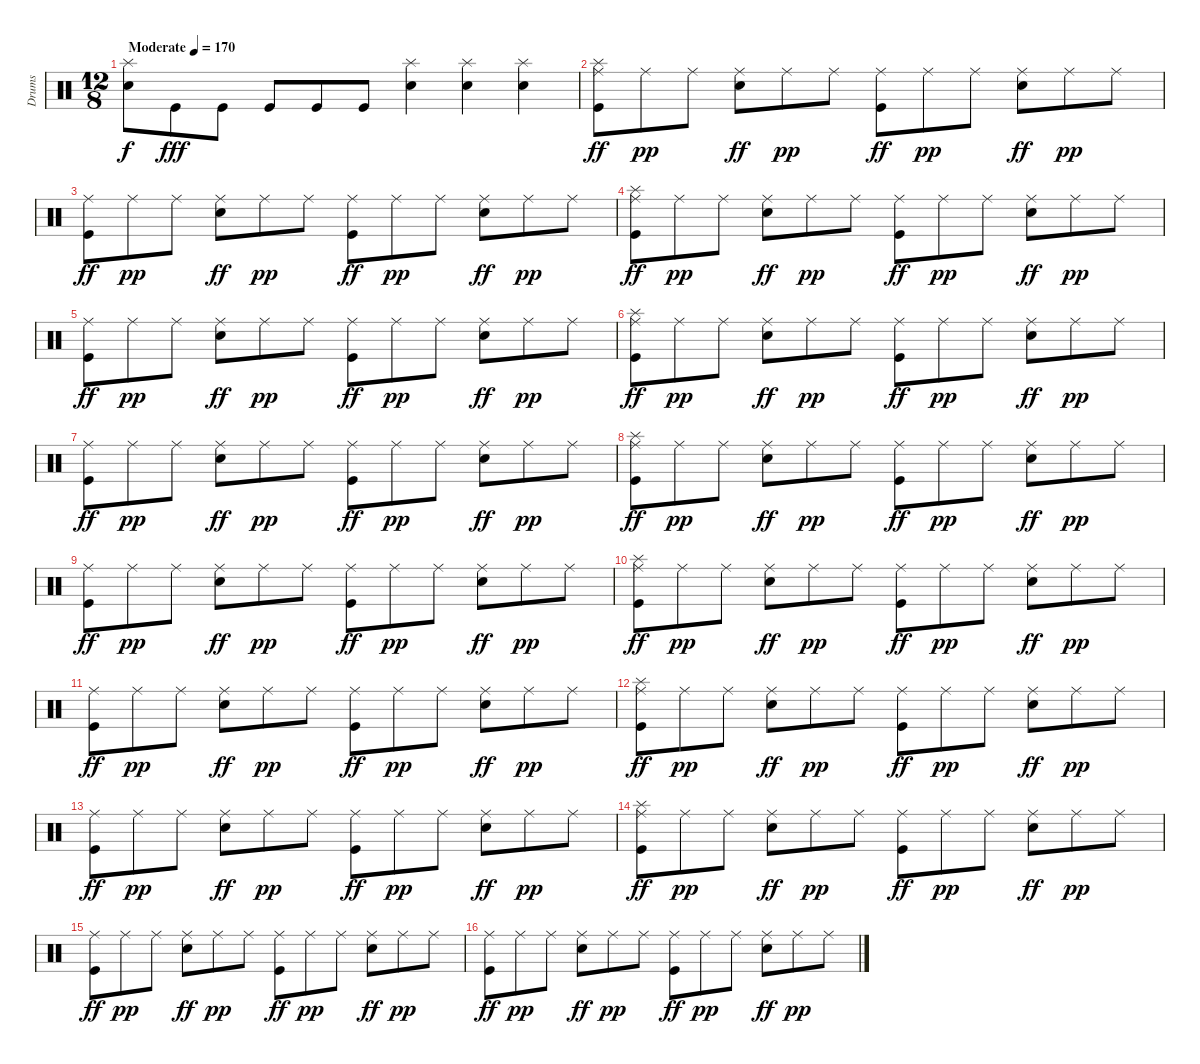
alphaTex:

\track ("Drums" "Drums") {instrument percussion}
\staff {score}
\articulation defaults
\ts (12 8)
\tempo (170 "Moderate")
\clef neutral
\ks c
("Splash (hit)" "Snare (hit) 2").8{dy f} "Kick (hit)".8{dy fff} "Kick (hit)".8 "Kick (hit)".8 "Kick (hit)".8 "Kick (hit)".8 ("Splash (hit)" "Snare (hit) 2").4 ("Splash (hit)" "Snare (hit) 2").4 ("Splash (hit)" "Snare (hit) 2").4 |
("Splash (hit)" "Ride (middle)" "Kick (hit)").8{dy ff} "Ride (middle)".8{dy pp} "Ride (middle)".8 ("Ride (middle)" "Snare (hit) 2").8{dy ff} "Ride (middle)".8{dy pp} "Ride (middle)".8 ("Ride (middle)" "Kick (hit)").8{dy ff} "Ride (middle)".8{dy pp} "Ride (middle)".8 ("Ride (middle)" "Snare (hit) 2").8{dy ff} "Ride (middle)".8{dy pp} "Ride (middle)".8 |
("Ride (middle)" "Kick (hit)").8{dy ff} "Ride (middle)".8{dy pp} "Ride (middle)".8 ("Ride (middle)" "Snare (hit) 2").8{dy ff} "Ride (middle)".8{dy pp} "Ride (middle)".8 ("Ride (middle)" "Kick (hit)").8{dy ff} "Ride (middle)".8{dy pp} "Ride (middle)".8 ("Ride (middle)" "Snare (hit) 2").8{dy ff} "Ride (middle)".8{dy pp} "Ride (middle)".8 |
("Splash (hit)" "Ride (middle)" "Kick (hit)").8{dy ff} "Ride (middle)".8{dy pp} "Ride (middle)".8 ("Ride (middle)" "Snare (hit) 2").8{dy ff} "Ride (middle)".8{dy pp} "Ride (middle)".8 ("Ride (middle)" "Kick (hit)").8{dy ff} "Ride (middle)".8{dy pp} "Ride (middle)".8 ("Ride (middle)" "Snare (hit) 2").8{dy ff} "Ride (middle)".8{dy pp} "Ride (middle)".8 |
("Ride (middle)" "Kick (hit)").8{dy ff} "Ride (middle)".8{dy pp} "Ride (middle)".8 ("Ride (middle)" "Snare (hit) 2").8{dy ff} "Ride (middle)".8{dy pp} "Ride (middle)".8 ("Ride (middle)" "Kick (hit)").8{dy ff} "Ride (middle)".8{dy pp} "Ride (middle)".8 ("Ride (middle)" "Snare (hit) 2").8{dy ff} "Ride (middle)".8{dy pp} "Ride (middle)".8 |
("Splash (hit)" "Ride (middle)" "Kick (hit)").8{dy ff} "Ride (middle)".8{dy pp} "Ride (middle)".8 ("Ride (middle)" "Snare (hit) 2").8{dy ff} "Ride (middle)".8{dy pp} "Ride (middle)".8 ("Ride (middle)" "Kick (hit)").8{dy ff} "Ride (middle)".8{dy pp} "Ride (middle)".8 ("Ride (middle)" "Snare (hit) 2").8{dy ff} "Ride (middle)".8{dy pp} "Ride (middle)".8 |
("Ride (middle)" "Kick (hit)").8{dy ff} "Ride (middle)".8{dy pp} "Ride (middle)".8 ("Ride (middle)" "Snare (hit) 2").8{dy ff} "Ride (middle)".8{dy pp} "Ride (middle)".8 ("Ride (middle)" "Kick (hit)").8{dy ff} "Ride (middle)".8{dy pp} "Ride (middle)".8 ("Ride (middle)" "Snare (hit) 2").8{dy ff} "Ride (middle)".8{dy pp} "Ride (middle)".8 |
("Splash (hit)" "Ride (middle)" "Kick (hit)").8{dy ff} "Ride (middle)".8{dy pp} "Ride (middle)".8 ("Ride (middle)" "Snare (hit) 2").8{dy ff} "Ride (middle)".8{dy pp} "Ride (middle)".8 ("Ride (middle)" "Kick (hit)").8{dy ff} "Ride (middle)".8{dy pp} "Ride (middle)".8 ("Ride (middle)" "Snare (hit) 2").8{dy ff} "Ride (middle)".8{dy pp} "Ride (middle)".8 |
("Ride (middle)" "Kick (hit)").8{dy ff} "Ride (middle)".8{dy pp} "Ride (middle)".8 ("Ride (middle)" "Snare (hit) 2").8{dy ff} "Ride (middle)".8{dy pp} "Ride (middle)".8 ("Ride (middle)" "Kick (hit)").8{dy ff} "Ride (middle)".8{dy pp} "Ride (middle)".8 ("Ride (middle)" "Snare (hit) 2").8{dy ff} "Ride (middle)".8{dy pp} "Ride (middle)".8 |
("Splash (hit)" "Ride (middle)" "Kick (hit)").8{dy ff} "Ride (middle)".8{dy pp} "Ride (middle)".8 ("Ride (middle)" "Snare (hit) 2").8{dy ff} "Ride (middle)".8{dy pp} "Ride (middle)".8 ("Ride (middle)" "Kick (hit)").8{dy ff} "Ride (middle)".8{dy pp} "Ride (middle)".8 ("Ride (middle)" "Snare (hit) 2").8{dy ff} "Ride (middle)".8{dy pp} "Ride (middle)".8 |
("Ride (middle)" "Kick (hit)").8{dy ff} "Ride (middle)".8{dy pp} "Ride (middle)".8 ("Ride (middle)" "Snare (hit) 2").8{dy ff} "Ride (middle)".8{dy pp} "Ride (middle)".8 ("Ride (middle)" "Kick (hit)").8{dy ff} "Ride (middle)".8{dy pp} "Ride (middle)".8 ("Ride (middle)" "Snare (hit) 2").8{dy ff} "Ride (middle)".8{dy pp} "Ride (middle)".8 |
("Splash (hit)" "Ride (middle)" "Kick (hit)").8{dy ff} "Ride (middle)".8{dy pp} "Ride (middle)".8 ("Ride (middle)" "Snare (hit) 2").8{dy ff} "Ride (middle)".8{dy pp} "Ride (middle)".8 ("Ride (middle)" "Kick (hit)").8{dy ff} "Ride (middle)".8{dy pp} "Ride (middle)".8 ("Ride (middle)" "Snare (hit) 2").8{dy ff} "Ride (middle)".8{dy pp} "Ride (middle)".8 |
("Ride (middle)" "Kick (hit)").8{dy ff} "Ride (middle)".8{dy pp} "Ride (middle)".8 ("Ride (middle)" "Snare (hit) 2").8{dy ff} "Ride (middle)".8{dy pp} "Ride (middle)".8 ("Ride (middle)" "Kick (hit)").8{dy ff} "Ride (middle)".8{dy pp} "Ride (middle)".8 ("Ride (middle)" "Snare (hit) 2").8{dy ff} "Ride (middle)".8{dy pp} "Ride (middle)".8 |
("Splash (hit)" "Ride (middle)" "Kick (hit)").8{dy ff} "Ride (middle)".8{dy pp} "Ride (middle)".8 ("Ride (middle)" "Snare (hit) 2").8{dy ff} "Ride (middle)".8{dy pp} "Ride (middle)".8 ("Ride (middle)" "Kick (hit)").8{dy ff} "Ride (middle)".8{dy pp} "Ride (middle)".8 ("Ride (middle)" "Snare (hit) 2").8{dy ff} "Ride (middle)".8{dy pp} "Ride (middle)".8 |
("Ride (middle)" "Kick (hit)").8{dy ff} "Ride (middle)".8{dy pp} "Ride (middle)".8 ("Ride (middle)" "Snare (hit) 2").8{dy ff} "Ride (middle)".8{dy pp} "Ride (middle)".8 ("Ride (middle)" "Kick (hit)").8{dy ff} "Ride (middle)".8{dy pp} "Ride (middle)".8 ("Ride (middle)" "Snare (hit) 2").8{dy ff} "Ride (middle)".8{dy pp} "Ride (middle)".8 |
("Ride (middle)" "Kick (hit)").8{dy ff} "Ride (middle)".8{dy pp} "Ride (middle)".8 ("Ride (middle)" "Snare (hit) 2").8{dy ff} "Ride (middle)".8{dy pp} "Ride (middle)".8 ("Ride (middle)" "Kick (hit)").8{dy ff} "Ride (middle)".8{dy pp} "Ride (middle)".8 ("Ride (middle)" "Snare (hit) 2").8{dy ff} "Ride (middle)".8{dy pp} "Ride (middle)".8
